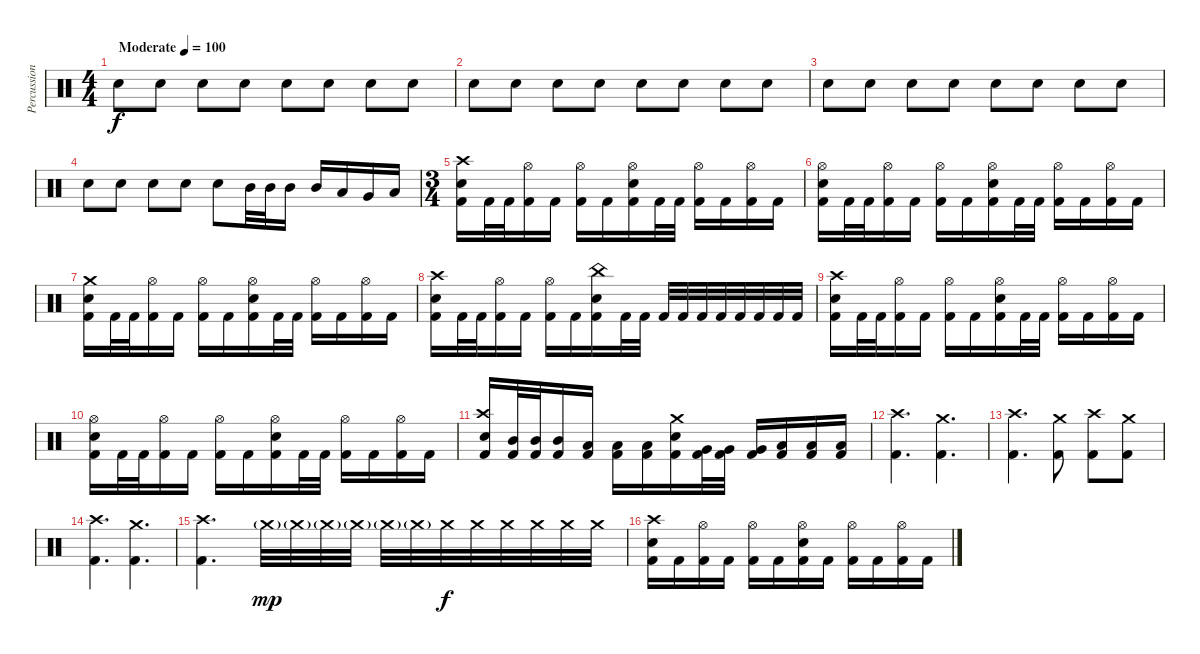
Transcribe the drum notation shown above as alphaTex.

\track ("Percussion" "Percussion") {instrument percussion}
\staff {score}
\articulation defaults
\ts (4 4)
\tempo (100 "Moderate")
\clef neutral
\ks c "Snare (hit) 2".8{dy f} "Snare (hit) 2".8 "Snare (hit) 2".8 "Snare (hit) 2".8 "Snare (hit) 2".8 "Snare (hit) 2".8 "Snare (hit) 2".8 "Snare (hit) 2".8
|
"Snare (hit) 2".8 "Snare (hit) 2".8 "Snare (hit) 2".8 "Snare (hit) 2".8 "Snare (hit) 2".8 "Snare (hit) 2".8 "Snare (hit) 2".8 "Snare (hit) 2".8 |
"Snare (hit) 2".8 "Snare (hit) 2".8 "Snare (hit) 2".8 "Snare (hit) 2".8 "Snare (hit) 2".8 "Snare (hit) 2".8 "Snare (hit) 2".8 "Snare (hit) 2".8 |
"Snare (hit) 2".8 "Snare (hit) 2".8 "Snare (hit) 2".8 "Snare (hit) 2".8 "Snare (hit) 2".8 "Mid Tom (hit)".32 "Mid Tom (hit)".32 "Mid Tom (hit)".16 "Mid Tom (hit)".16 "Low Tom (hit)".16 "Very Low Tom (hit)".16 "Low Floor Tom (hit)".16 |
\ts (3 4)
("Crash high (hit)" "Snare (hit) 2" "Kick (hit) 2").16 "Kick (hit) 2".32 "Kick (hit) 2".32 ("Hi-Hat (open)" "Kick (hit) 2").16 "Kick (hit) 2".16 ("Hi-Hat (open)" "Kick (hit) 2").16 "Kick (hit) 2".16 ("Hi-Hat (open)" "Snare (hit) 2" "Kick (hit) 2").16 "Kick (hit) 2".32 "Kick (hit) 2".32 ("Hi-Hat (open)" "Kick (hit) 2").16 "Kick (hit) 2".16 ("Hi-Hat (open)" "Kick (hit) 2").16 "Kick (hit) 2".16 |
("Hi-Hat (open)" "Snare (hit) 2" "Kick (hit) 2").16 "Kick (hit) 2".32 "Kick (hit) 2".32 ("Hi-Hat (open)" "Kick (hit) 2").16 "Kick (hit) 2".16 ("Hi-Hat (open)" "Kick (hit) 2").16 "Kick (hit) 2".16 ("Hi-Hat (open)" "Snare (hit) 2" "Kick (hit) 2").16 "Kick (hit) 2".32 "Kick (hit) 2".32 ("Hi-Hat (open)" "Kick (hit) 2").16 "Kick (hit) 2".16 ("Hi-Hat (open)" "Kick (hit) 2").16 "Kick (hit) 2".16 |
("Crash medium (hit)" "Snare (hit) 2" "Kick (hit) 2").16 "Kick (hit) 2".32 "Kick (hit) 2".32 ("Hi-Hat (open)" "Kick (hit) 2").16 "Kick (hit) 2".16 ("Hi-Hat (open)" "Kick (hit) 2").16 "Kick (hit) 2".16 ("Hi-Hat (open)" "Snare (hit) 2" "Kick (hit) 2").16 "Kick (hit) 2".32 "Kick (hit) 2".32 ("Hi-Hat (open)" "Kick (hit) 2").16 "Kick (hit) 2".16 ("Hi-Hat (open)" "Kick (hit) 2").16 "Kick (hit) 2".16 |
("Crash high (hit)" "Snare (hit) 2" "Kick (hit) 2").16 "Kick (hit) 2".32 "Kick (hit) 2".32 ("Hi-Hat (open)" "Kick (hit) 2").16 "Kick (hit) 2".16 ("Hi-Hat (open)" "Kick (hit) 2").16 "Kick (hit) 2".16 ("China (hit)" "Snare (hit) 2" "Kick (hit) 2").16 "Kick (hit) 2".32 "Kick (hit) 2".32 "Kick (hit) 2".32 "Kick (hit) 2".32 "Kick (hit) 2".32 "Kick (hit) 2".32 "Kick (hit) 2".32 "Kick (hit) 2".32 "Kick (hit) 2".32 "Kick (hit) 2".32 |
("Crash high (hit)" "Snare (hit) 2" "Kick (hit) 2").16 "Kick (hit) 2".32 "Kick (hit) 2".32 ("Hi-Hat (open)" "Kick (hit) 2").16 "Kick (hit) 2".16 ("Hi-Hat (open)" "Kick (hit) 2").16 "Kick (hit) 2".16 ("Hi-Hat (open)" "Snare (hit) 2" "Kick (hit) 2").16 "Kick (hit) 2".32 "Kick (hit) 2".32 ("Hi-Hat (open)" "Kick (hit) 2").16 "Kick (hit) 2".16 ("Hi-Hat (open)" "Kick (hit) 2").16 "Kick (hit) 2".16 |
("Hi-Hat (open)" "Snare (hit) 2" "Kick (hit) 2").16 "Kick (hit) 2".32 "Kick (hit) 2".32 ("Hi-Hat (open)" "Kick (hit) 2").16 "Kick (hit) 2".16 ("Hi-Hat (open)" "Kick (hit) 2").16 "Kick (hit) 2".16 ("Hi-Hat (open)" "Snare (hit) 2" "Kick (hit) 2").16 "Kick (hit) 2".32 "Kick (hit) 2".32 ("Hi-Hat (open)" "Kick (hit) 2").16 "Kick (hit) 2".16 ("Hi-Hat (open)" "Kick (hit) 2").16 "Kick (hit) 2".16 |
("Crash high (hit)" "Snare (hit) 2" "Kick (hit) 2").16 ("Mid Tom (hit)" "Kick (hit) 2").32 ("Mid Tom (hit)" "Kick (hit) 2").32 ("Mid Tom (hit)" "Kick (hit) 2").16 ("Low Tom (hit)" "Kick (hit) 2").16 ("Low Tom (hit)" "Kick (hit) 2").16 ("Low Tom (hit)" "Kick (hit) 2").16 ("Crash medium (hit)" "Snare (hit) 2" "Kick (hit) 2").16 ("Very Low Tom (hit)" "Kick (hit) 2").32 ("Very Low Tom (hit)" "Kick (hit) 2").32 ("Very Low Tom (hit)" "Kick (hit) 2").16 ("Low Floor Tom (hit)" "Kick (hit) 2").16 ("Low Floor Tom (hit)" "Kick (hit) 2").16 ("Low Floor Tom (hit)" "Kick (hit) 2").16 |
("Crash high (hit)" "Kick (hit) 2").4{d} ("Crash medium (hit)" "Kick (hit) 2").4{d} |
("Crash high (hit)" "Kick (hit) 2").4{d} ("Crash medium (hit)" "Kick (hit) 2").8 ("Crash high (hit)" "Kick (hit) 2").8 ("Crash medium (hit)" "Kick (hit) 2").8 |
("Crash high (hit)" "Kick (hit) 2").4{d} ("Crash medium (hit)" "Kick (hit) 2").4{d} |
("Crash high (hit)" "Kick (hit) 2").4{d} "Crash medium (hit)"{g}.32{dy mp} "Crash medium (hit)"{g}.32 "Crash medium (hit)"{g}.32 "Crash medium (hit)"{g}.32 "Crash medium (hit)"{g}.32 "Crash medium (hit)"{g}.32 "Crash medium (hit)".32{dy f} "Crash medium (hit)".32 "Crash medium (hit)".32 "Crash medium (hit)".32 "Crash medium (hit)".32 "Crash medium (hit)".32 |
("Crash high (hit)" "Snare (hit) 2" "Kick (hit) 2").16 "Kick (hit) 2".16 ("Hi-Hat (open)" "Kick (hit) 2").16 "Kick (hit) 2".16 ("Hi-Hat (open)" "Kick (hit) 2").16 "Kick (hit) 2".16 ("Hi-Hat (open)" "Snare (hit) 2" "Kick (hit) 2").16 "Kick (hit) 2".16 ("Hi-Hat (open)" "Kick (hit) 2").16 "Kick (hit) 2".16 ("Hi-Hat (open)" "Kick (hit) 2").16 "Kick (hit) 2".16
